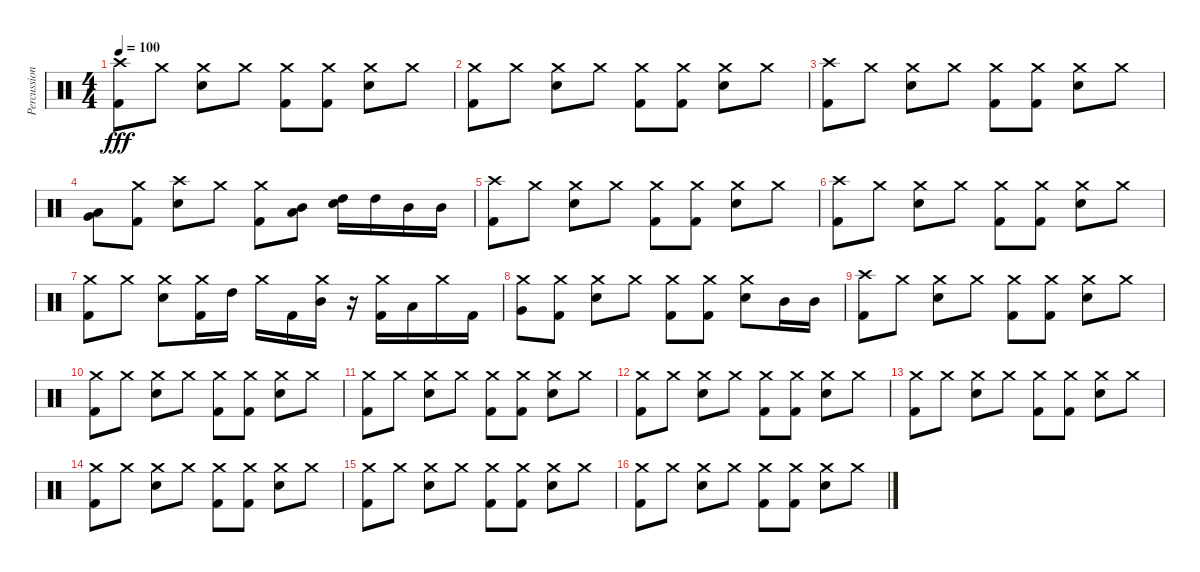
\track ("Percussion" "Percussion") {instrument percussion}
\staff {score}
\articulation defaults
\ts (4 4)
\tempo 100
\clef neutral
\ks c
("Crash high (hit)" "Kick (hit) 2").8{dy fff} "Crash medium (hit)".8 ("Crash medium (hit)" "Electric Snare (hit)").8 "Crash medium (hit)".8 ("Crash medium (hit)" "Kick (hit) 2").8 ("Crash medium (hit)" "Kick (hit) 2").8 ("Crash medium (hit)" "Electric Snare (hit)").8 "Crash medium (hit)".8 |
("Crash medium (hit)" "Kick (hit) 2").8 "Crash medium (hit)".8 ("Crash medium (hit)" "Electric Snare (hit)").8 "Crash medium (hit)".8 ("Crash medium (hit)" "Kick (hit) 2").8 ("Crash medium (hit)" "Kick (hit) 2").8 ("Crash medium (hit)" "Electric Snare (hit)").8 "Crash medium (hit)".8 |
("Crash high (hit)" "Kick (hit) 2").8 "Crash medium (hit)".8 ("Crash medium (hit)" "Electric Snare (hit)").8 "Crash medium (hit)".8 ("Crash medium (hit)" "Kick (hit) 2").8 ("Crash medium (hit)" "Kick (hit) 2").8 ("Crash medium (hit)" "Electric Snare (hit)").8 "Crash medium (hit)".8 |
("Low Tom (hit)" "Very Low Tom (hit)").8 ("Crash medium (hit)" "Kick (hit) 2").8 ("Crash high (hit)" "Electric Snare (hit)").8 "Crash medium (hit)".8 ("Crash medium (hit)" "Kick (hit) 2").8 ("Low Tom (hit)" "Mid Tom (hit)").8 ("High Tom (hit)" "Electric Snare (hit)").16 "High Tom (hit)".16 "Mid Tom (hit)".16 "Mid Tom (hit)".16 |
("Crash high (hit)" "Kick (hit) 2").8 "Crash medium (hit)".8 ("Crash medium (hit)" "Electric Snare (hit)").8 "Crash medium (hit)".8 ("Crash medium (hit)" "Kick (hit) 2").8 ("Crash medium (hit)" "Kick (hit) 2").8 ("Crash medium (hit)" "Electric Snare (hit)").8 "Crash medium (hit)".8 |
("Crash high (hit)" "Kick (hit) 2").8 "Crash medium (hit)".8 ("Crash medium (hit)" "Electric Snare (hit)").8 "Crash medium (hit)".8 ("Crash medium (hit)" "Kick (hit) 2").8 ("Crash medium (hit)" "Kick (hit) 2").8 ("Crash medium (hit)" "Electric Snare (hit)").8 "Crash medium (hit)".8 |
("Crash medium (hit)" "Kick (hit) 2").8 "Crash medium (hit)".8 ("Crash medium (hit)" "Electric Snare (hit)").8 ("Crash medium (hit)" "Kick (hit) 2").16 "High Tom (hit)".16 "Crash medium (hit)".16 "Kick (hit) 2".16 ("Crash medium (hit)" "Mid Tom (hit)").16 r.16 ("Crash medium (hit)" "Kick (hit) 2").16 "Low Tom (hit)".16 "Crash medium (hit)".16 "Kick (hit) 2".16 |
("Crash medium (hit)" "Very Low Tom (hit)").8 ("Crash medium (hit)" "Kick (hit) 2").8 ("Crash medium (hit)" "Electric Snare (hit)").8 "Crash medium (hit)".8 ("Crash medium (hit)" "Kick (hit) 2").8 ("Crash medium (hit)" "Kick (hit) 2").8 ("Crash medium (hit)" "Electric Snare (hit)").8 "Mid Tom (hit)".16 "Mid Tom (hit)".16 |
("Crash high (hit)" "Kick (hit) 2").8 "Crash medium (hit)".8 ("Crash medium (hit)" "Electric Snare (hit)").8 "Crash medium (hit)".8 ("Crash medium (hit)" "Kick (hit) 2").8 ("Crash medium (hit)" "Kick (hit) 2").8 ("Crash medium (hit)" "Electric Snare (hit)").8 "Crash medium (hit)".8 |
("Crash medium (hit)" "Kick (hit) 2").8 "Crash medium (hit)".8 ("Crash medium (hit)" "Electric Snare (hit)").8 "Crash medium (hit)".8 ("Crash medium (hit)" "Kick (hit) 2").8 ("Crash medium (hit)" "Kick (hit) 2").8 ("Crash medium (hit)" "Electric Snare (hit)").8 "Crash medium (hit)".8 |
("Crash medium (hit)" "Kick (hit) 2").8 "Crash medium (hit)".8 ("Crash medium (hit)" "Electric Snare (hit)").8 "Crash medium (hit)".8 ("Crash medium (hit)" "Kick (hit) 2").8 ("Crash medium (hit)" "Kick (hit) 2").8 ("Crash medium (hit)" "Electric Snare (hit)").8 "Crash medium (hit)".8 |
("Crash medium (hit)" "Kick (hit) 2").8 "Crash medium (hit)".8 ("Crash medium (hit)" "Electric Snare (hit)").8 "Crash medium (hit)".8 ("Crash medium (hit)" "Kick (hit) 2").8 ("Crash medium (hit)" "Kick (hit) 2").8 ("Crash medium (hit)" "Electric Snare (hit)").8 "Crash medium (hit)".8 |
("Crash medium (hit)" "Kick (hit) 2").8 "Crash medium (hit)".8 ("Crash medium (hit)" "Electric Snare (hit)").8 "Crash medium (hit)".8 ("Crash medium (hit)" "Kick (hit) 2").8 ("Crash medium (hit)" "Kick (hit) 2").8 ("Crash medium (hit)" "Electric Snare (hit)").8 "Crash medium (hit)".8 |
("Crash medium (hit)" "Kick (hit) 2").8 "Crash medium (hit)".8 ("Crash medium (hit)" "Electric Snare (hit)").8 "Crash medium (hit)".8 ("Crash medium (hit)" "Kick (hit) 2").8 ("Crash medium (hit)" "Kick (hit) 2").8 ("Crash medium (hit)" "Electric Snare (hit)").8 "Crash medium (hit)".8 |
("Crash medium (hit)" "Kick (hit) 2").8 "Crash medium (hit)".8 ("Crash medium (hit)" "Electric Snare (hit)").8 "Crash medium (hit)".8 ("Crash medium (hit)" "Kick (hit) 2").8 ("Crash medium (hit)" "Kick (hit) 2").8 ("Crash medium (hit)" "Electric Snare (hit)").8 "Crash medium (hit)".8 |
("Crash medium (hit)" "Kick (hit) 2").8 "Crash medium (hit)".8 ("Crash medium (hit)" "Electric Snare (hit)").8 "Crash medium (hit)".8 ("Crash medium (hit)" "Kick (hit) 2").8 ("Crash medium (hit)" "Kick (hit) 2").8 ("Crash medium (hit)" "Electric Snare (hit)").8 "Crash medium (hit)".8
